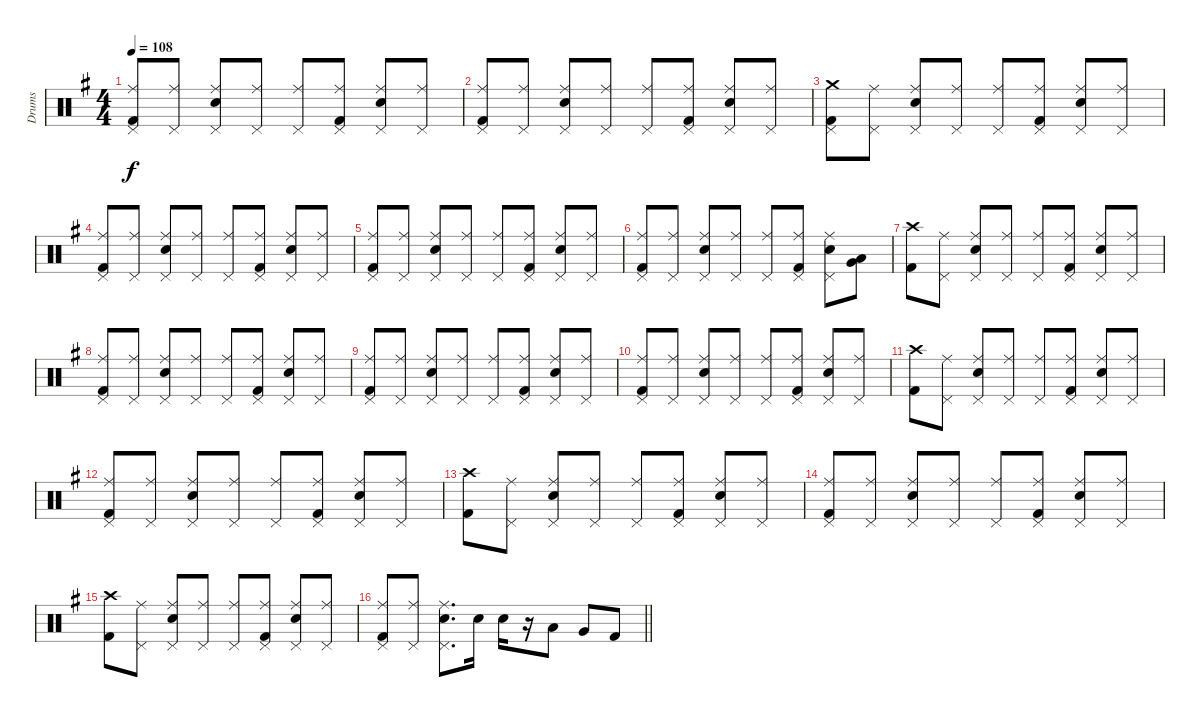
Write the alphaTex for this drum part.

\track ("Drums" "Drums") {instrument percussion}
\staff {score}
\articulation defaults
\ts (4 4)
\tempo 108
\clef neutral
\ks g
("Ride (middle)" "Kick (hit) 2" "Pedal Hi-Hat (hit)").8{dy f} ("Ride (middle)" "Pedal Hi-Hat (hit)").8 ("Ride (middle)" "Electric Snare (hit)" "Pedal Hi-Hat (hit)").8 ("Ride (middle)" "Pedal Hi-Hat (hit)").8 ("Ride (middle)" "Pedal Hi-Hat (hit)").8 ("Ride (middle)" "Kick (hit) 2" "Pedal Hi-Hat (hit)").8 ("Ride (middle)" "Electric Snare (hit)" "Pedal Hi-Hat (hit)").8 ("Ride (middle)" "Pedal Hi-Hat (hit)").8 |
("Ride (middle)" "Kick (hit) 2" "Pedal Hi-Hat (hit)").8 ("Ride (middle)" "Pedal Hi-Hat (hit)").8 ("Ride (middle)" "Electric Snare (hit)" "Pedal Hi-Hat (hit)").8 ("Ride (middle)" "Pedal Hi-Hat (hit)").8 ("Ride (middle)" "Pedal Hi-Hat (hit)").8 ("Ride (middle)" "Kick (hit) 2" "Pedal Hi-Hat (hit)").8 ("Ride (middle)" "Electric Snare (hit)" "Pedal Hi-Hat (hit)").8 ("Ride (middle)" "Pedal Hi-Hat (hit)").8 |
("Crash medium (hit)" "Kick (hit) 2" "Pedal Hi-Hat (hit)").8 ("Ride (middle)" "Pedal Hi-Hat (hit)").8 ("Ride (middle)" "Electric Snare (hit)" "Pedal Hi-Hat (hit)").8 ("Ride (middle)" "Pedal Hi-Hat (hit)").8 ("Ride (middle)" "Pedal Hi-Hat (hit)").8 ("Ride (middle)" "Kick (hit) 2" "Pedal Hi-Hat (hit)").8 ("Ride (middle)" "Electric Snare (hit)" "Pedal Hi-Hat (hit)").8 ("Ride (middle)" "Pedal Hi-Hat (hit)").8 |
("Ride (middle)" "Kick (hit) 2" "Pedal Hi-Hat (hit)").8 ("Ride (middle)" "Pedal Hi-Hat (hit)").8 ("Ride (middle)" "Electric Snare (hit)" "Pedal Hi-Hat (hit)").8 ("Ride (middle)" "Pedal Hi-Hat (hit)").8 ("Ride (middle)" "Pedal Hi-Hat (hit)").8 ("Ride (middle)" "Kick (hit) 2" "Pedal Hi-Hat (hit)").8 ("Ride (middle)" "Electric Snare (hit)" "Pedal Hi-Hat (hit)").8 ("Ride (middle)" "Pedal Hi-Hat (hit)").8 |
("Ride (middle)" "Kick (hit) 2" "Pedal Hi-Hat (hit)").8 ("Ride (middle)" "Pedal Hi-Hat (hit)").8 ("Ride (middle)" "Electric Snare (hit)" "Pedal Hi-Hat (hit)").8 ("Ride (middle)" "Pedal Hi-Hat (hit)").8 ("Ride (middle)" "Pedal Hi-Hat (hit)").8 ("Ride (middle)" "Kick (hit) 2" "Pedal Hi-Hat (hit)").8 ("Ride (middle)" "Electric Snare (hit)" "Pedal Hi-Hat (hit)").8 ("Ride (middle)" "Pedal Hi-Hat (hit)").8 |
("Ride (middle)" "Kick (hit) 2" "Pedal Hi-Hat (hit)").8 ("Ride (middle)" "Pedal Hi-Hat (hit)").8 ("Ride (middle)" "Electric Snare (hit)" "Pedal Hi-Hat (hit)").8 ("Ride (middle)" "Pedal Hi-Hat (hit)").8 ("Ride (middle)" "Pedal Hi-Hat (hit)").8 ("Ride (middle)" "Kick (hit) 2" "Pedal Hi-Hat (hit)").8 ("Ride (middle)" "Electric Snare (hit)" "Pedal Hi-Hat (hit)").8 ("Low Tom (hit)" "Very Low Tom (hit)").8 |
("Crash high (hit)" "Kick (hit) 2").8 ("Ride (middle)" "Pedal Hi-Hat (hit)").8 ("Ride (middle)" "Electric Snare (hit)" "Pedal Hi-Hat (hit)").8 ("Ride (middle)" "Pedal Hi-Hat (hit)").8 ("Ride (middle)" "Pedal Hi-Hat (hit)").8 ("Ride (middle)" "Kick (hit) 2" "Pedal Hi-Hat (hit)").8 ("Ride (middle)" "Electric Snare (hit)" "Pedal Hi-Hat (hit)").8 ("Ride (middle)" "Pedal Hi-Hat (hit)").8 |
("Ride (middle)" "Kick (hit) 2" "Pedal Hi-Hat (hit)").8 ("Ride (middle)" "Pedal Hi-Hat (hit)").8 ("Ride (middle)" "Electric Snare (hit)" "Pedal Hi-Hat (hit)").8 ("Ride (middle)" "Pedal Hi-Hat (hit)").8 ("Ride (middle)" "Pedal Hi-Hat (hit)").8 ("Ride (middle)" "Kick (hit) 2" "Pedal Hi-Hat (hit)").8 ("Ride (middle)" "Electric Snare (hit)" "Pedal Hi-Hat (hit)").8 ("Ride (middle)" "Pedal Hi-Hat (hit)").8 |
("Ride (middle)" "Kick (hit) 2" "Pedal Hi-Hat (hit)").8 ("Ride (middle)" "Pedal Hi-Hat (hit)").8 ("Ride (middle)" "Electric Snare (hit)" "Pedal Hi-Hat (hit)").8 ("Ride (middle)" "Pedal Hi-Hat (hit)").8 ("Ride (middle)" "Pedal Hi-Hat (hit)").8 ("Ride (middle)" "Kick (hit) 2" "Pedal Hi-Hat (hit)").8 ("Ride (middle)" "Electric Snare (hit)" "Pedal Hi-Hat (hit)").8 ("Ride (middle)" "Pedal Hi-Hat (hit)").8 |
("Ride (middle)" "Kick (hit) 2" "Pedal Hi-Hat (hit)").8 ("Ride (middle)" "Pedal Hi-Hat (hit)").8 ("Ride (middle)" "Electric Snare (hit)" "Pedal Hi-Hat (hit)").8 ("Ride (middle)" "Pedal Hi-Hat (hit)").8 ("Ride (middle)" "Pedal Hi-Hat (hit)").8 ("Ride (middle)" "Kick (hit) 2" "Pedal Hi-Hat (hit)").8 ("Ride (middle)" "Electric Snare (hit)" "Pedal Hi-Hat (hit)").8 ("Ride (middle)" "Pedal Hi-Hat (hit)").8 |
("Crash high (hit)" "Kick (hit) 2").8 ("Ride (middle)" "Pedal Hi-Hat (hit)").8 ("Ride (middle)" "Electric Snare (hit)" "Pedal Hi-Hat (hit)").8 ("Ride (middle)" "Pedal Hi-Hat (hit)").8 ("Ride (middle)" "Pedal Hi-Hat (hit)").8 ("Ride (middle)" "Kick (hit) 2" "Pedal Hi-Hat (hit)").8 ("Ride (middle)" "Electric Snare (hit)" "Pedal Hi-Hat (hit)").8 ("Ride (middle)" "Pedal Hi-Hat (hit)").8 |
("Ride (middle)" "Kick (hit) 2" "Pedal Hi-Hat (hit)").8 ("Ride (middle)" "Pedal Hi-Hat (hit)").8 ("Ride (middle)" "Electric Snare (hit)" "Pedal Hi-Hat (hit)").8 ("Ride (middle)" "Pedal Hi-Hat (hit)").8 ("Ride (middle)" "Pedal Hi-Hat (hit)").8 ("Ride (middle)" "Kick (hit) 2" "Pedal Hi-Hat (hit)").8 ("Ride (middle)" "Electric Snare (hit)" "Pedal Hi-Hat (hit)").8 ("Ride (middle)" "Pedal Hi-Hat (hit)").8 |
("Crash high (hit)" "Kick (hit) 2").8 ("Ride (middle)" "Pedal Hi-Hat (hit)").8 ("Ride (middle)" "Electric Snare (hit)" "Pedal Hi-Hat (hit)").8 ("Ride (middle)" "Pedal Hi-Hat (hit)").8 ("Ride (middle)" "Pedal Hi-Hat (hit)").8 ("Ride (middle)" "Kick (hit) 2" "Pedal Hi-Hat (hit)").8 ("Ride (middle)" "Electric Snare (hit)" "Pedal Hi-Hat (hit)").8 ("Ride (middle)" "Pedal Hi-Hat (hit)").8 |
("Ride (middle)" "Kick (hit) 2" "Pedal Hi-Hat (hit)").8 ("Ride (middle)" "Pedal Hi-Hat (hit)").8 ("Ride (middle)" "Electric Snare (hit)" "Pedal Hi-Hat (hit)").8 ("Ride (middle)" "Pedal Hi-Hat (hit)").8 ("Ride (middle)" "Pedal Hi-Hat (hit)").8 ("Ride (middle)" "Kick (hit) 2" "Pedal Hi-Hat (hit)").8 ("Ride (middle)" "Electric Snare (hit)" "Pedal Hi-Hat (hit)").8 ("Ride (middle)" "Pedal Hi-Hat (hit)").8 |
("Crash high (hit)" "Kick (hit) 2").8 ("Ride (middle)" "Pedal Hi-Hat (hit)").8 ("Ride (middle)" "Electric Snare (hit)" "Pedal Hi-Hat (hit)").8 ("Ride (middle)" "Pedal Hi-Hat (hit)").8 ("Ride (middle)" "Pedal Hi-Hat (hit)").8 ("Ride (middle)" "Kick (hit) 2" "Pedal Hi-Hat (hit)").8 ("Ride (middle)" "Electric Snare (hit)" "Pedal Hi-Hat (hit)").8 ("Ride (middle)" "Pedal Hi-Hat (hit)").8 |
\barLineRight lightlight
("Ride (middle)" "Kick (hit) 2" "Pedal Hi-Hat (hit)").8 ("Ride (middle)" "Pedal Hi-Hat (hit)").8 ("Ride (middle)" "Electric Snare (hit)" "Pedal Hi-Hat (hit)").8{d} "Electric Snare (hit)".16 "Electric Snare (hit)".16 r.16 "Low Tom (hit)".8 "Very Low Tom (hit)".8 "Kick (hit) 2".8
